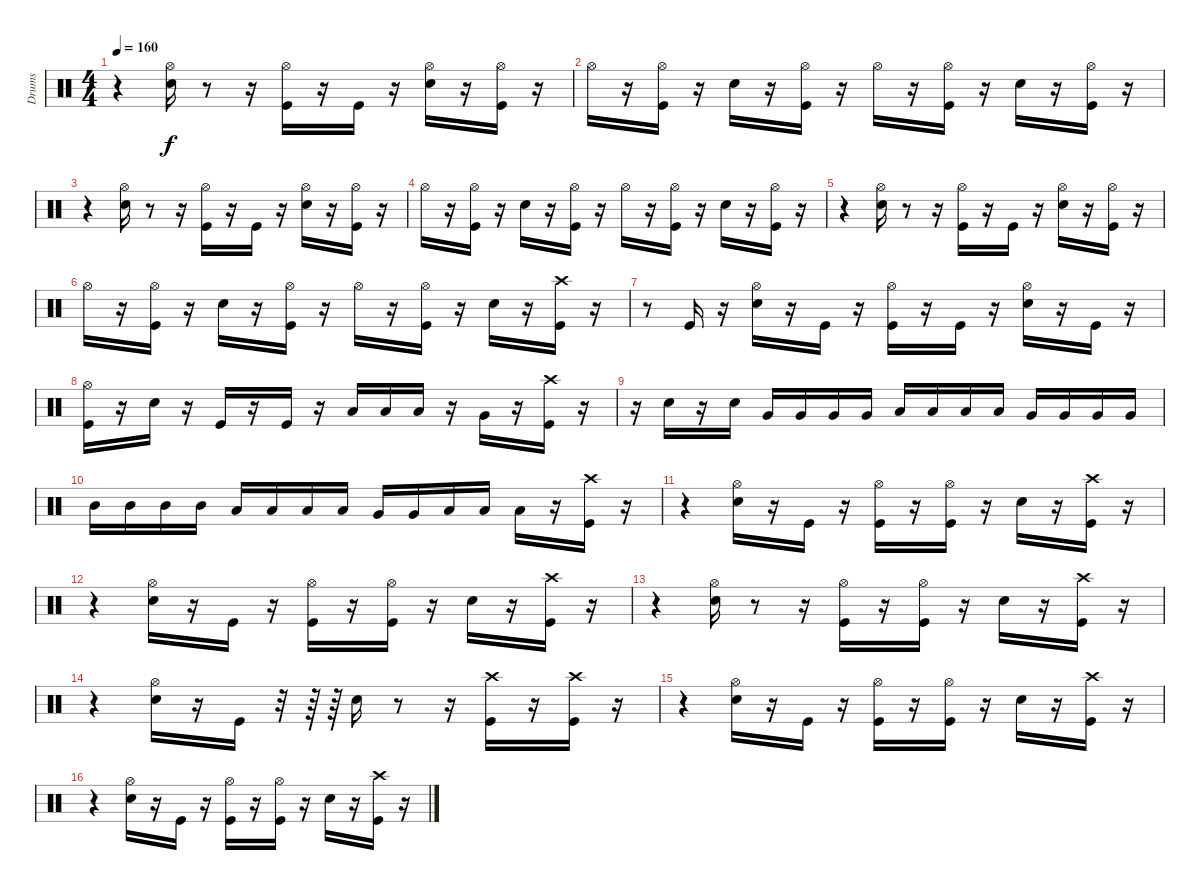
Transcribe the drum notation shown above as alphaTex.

\track ("Drums" "Drums") {instrument percussion}
\staff {score}
\articulation defaults
\ts (4 4)
\tempo 160
\clef neutral
\ks c
r.4{dy f} ("Snare (hit) 2" "Hi-Hat (open)").16 r.8 r.16 ("Kick (hit)" "Hi-Hat (open)").16 r.16 "Kick (hit)".16 r.16 ("Snare (hit) 2" "Hi-Hat (open)").16 r.16 ("Kick (hit)" "Hi-Hat (open)").16 r.16 |
"Hi-Hat (open)".16 r.16 ("Kick (hit)" "Hi-Hat (open)").16 r.16 "Snare (hit) 2".16 r.16 ("Kick (hit)" "Hi-Hat (open)").16 r.16 "Hi-Hat (open)".16 r.16 ("Kick (hit)" "Hi-Hat (open)").16 r.16 "Snare (hit) 2".16 r.16 ("Kick (hit)" "Hi-Hat (open)").16 r.16 |
r.4 ("Snare (hit) 2" "Hi-Hat (open)").16 r.8 r.16 ("Kick (hit)" "Hi-Hat (open)").16 r.16 "Kick (hit)".16 r.16 ("Snare (hit) 2" "Hi-Hat (open)").16 r.16 ("Kick (hit)" "Hi-Hat (open)").16 r.16 |
"Hi-Hat (open)".16 r.16 ("Kick (hit)" "Hi-Hat (open)").16 r.16 "Snare (hit) 2".16 r.16 ("Kick (hit)" "Hi-Hat (open)").16 r.16 "Hi-Hat (open)".16 r.16 ("Kick (hit)" "Hi-Hat (open)").16 r.16 "Snare (hit) 2".16 r.16 ("Kick (hit)" "Hi-Hat (open)").16 r.16 |
r.4 ("Snare (hit) 2" "Hi-Hat (open)").16 r.8 r.16 ("Kick (hit)" "Hi-Hat (open)").16 r.16 "Kick (hit)".16 r.16 ("Snare (hit) 2" "Hi-Hat (open)").16 r.16 ("Kick (hit)" "Hi-Hat (open)").16 r.16 |
"Hi-Hat (open)".16 r.16 ("Kick (hit)" "Hi-Hat (open)").16 r.16 "Snare (hit) 2".16 r.16 ("Kick (hit)" "Hi-Hat (open)").16 r.16 "Hi-Hat (open)".16 r.16 ("Kick (hit)" "Hi-Hat (open)").16 r.16 "Snare (hit) 2".16 r.16 ("Kick (hit)" "Crash high (hit)").16 r.16 |
r.8 "Kick (hit)".16 r.16 ("Hi-Hat (open)" "Snare (hit) 2").16 r.16 "Kick (hit)".16 r.16 ("Kick (hit)" "Hi-Hat (open)").16 r.16 "Kick (hit)".16 r.16 ("Hi-Hat (open)" "Snare (hit) 2").16 r.16 "Kick (hit)".16 r.16 |
("Hi-Hat (open)" "Kick (hit)").16 r.16 "Snare (hit) 2".16 r.16 "Kick (hit)".16 r.16 "Kick (hit)".16 r.16 "Low Tom (hit)".16 "Low Tom (hit)".16 "Low Tom (hit)".16 r.16 "Very Low Tom (hit)".16 r.16 ("Kick (hit)" "Crash high (hit)").16 r.16 |
r.16 "Electric Snare (hit)".16 r.16 "Electric Snare (hit)".16 "Very Low Tom (hit)".16 "Very Low Tom (hit)".16 "Very Low Tom (hit)".16 "Very Low Tom (hit)".16 "Low Tom (hit)".16 "Low Tom (hit)".16 "Low Tom (hit)".16 "Low Tom (hit)".16 "Very Low Tom (hit)".16 "Very Low Tom (hit)".16 "Very Low Tom (hit)".16 "Very Low Tom (hit)".16 |
"Mid Tom (hit)".16 "Mid Tom (hit)".16 "Mid Tom (hit)".16 "Mid Tom (hit)".16 "Low Tom (hit)".16 "Low Tom (hit)".16 "Low Tom (hit)".16 "Low Tom (hit)".16 "Very Low Tom (hit)".16 "Very Low Tom (hit)".16 "Low Floor Tom (hit)".16 "Low Floor Tom (hit)".16 "Low Floor Tom (hit)".16 r.16 ("Kick (hit)" "Crash high (hit)").16 r.16 |
r.4 ("Snare (hit) 2" "Hi-Hat (open)").16 r.16 "Kick (hit)".16 r.16 ("Hi-Hat (open)" "Kick (hit)").16 r.16 ("Kick (hit)" "Hi-Hat (open)").16 r.16 "Snare (hit) 2".16 r.16 ("Kick (hit)" "Crash high (hit)").16 r.16 |
r.4 ("Snare (hit) 2" "Hi-Hat (open)").16 r.16 "Kick (hit)".16 r.16 ("Hi-Hat (open)" "Kick (hit)").16 r.16 ("Kick (hit)" "Hi-Hat (open)").16 r.16 "Snare (hit) 2".16 r.16 ("Kick (hit)" "Crash high (hit)").16 r.16 |
r.4 ("Snare (hit) 2" "Hi-Hat (open)").16 r.8 r.16 ("Hi-Hat (open)" "Kick (hit)").16 r.16 ("Hi-Hat (open)" "Kick (hit)").16 r.16 "Snare (hit) 2".16 r.16 ("Kick (hit)" "Crash high (hit)").16 r.16 |
r.4 ("Hi-Hat (open)" "Snare (hit) 2").16 r.16 "Kick (hit)".16 r.32 r.64 r.64 "Snare (hit) 2".16 r.8 r.16 ("Kick (hit)" "Crash high (hit)").16 r.16 ("Kick (hit)" "Crash high (hit)").16 r.16 |
r.4 ("Snare (hit) 2" "Hi-Hat (open)").16 r.16 "Kick (hit)".16 r.16 ("Hi-Hat (open)" "Kick (hit)").16 r.16 ("Kick (hit)" "Hi-Hat (open)").16 r.16 "Snare (hit) 2".16 r.16 ("Kick (hit)" "Crash high (hit)").16 r.16 |
r.4 ("Snare (hit) 2" "Hi-Hat (open)").16 r.16 "Kick (hit)".16 r.16 ("Hi-Hat (open)" "Kick (hit)").16 r.16 ("Kick (hit)" "Hi-Hat (open)").16 r.16 "Snare (hit) 2".16 r.16 ("Kick (hit)" "Crash high (hit)").16 r.16
